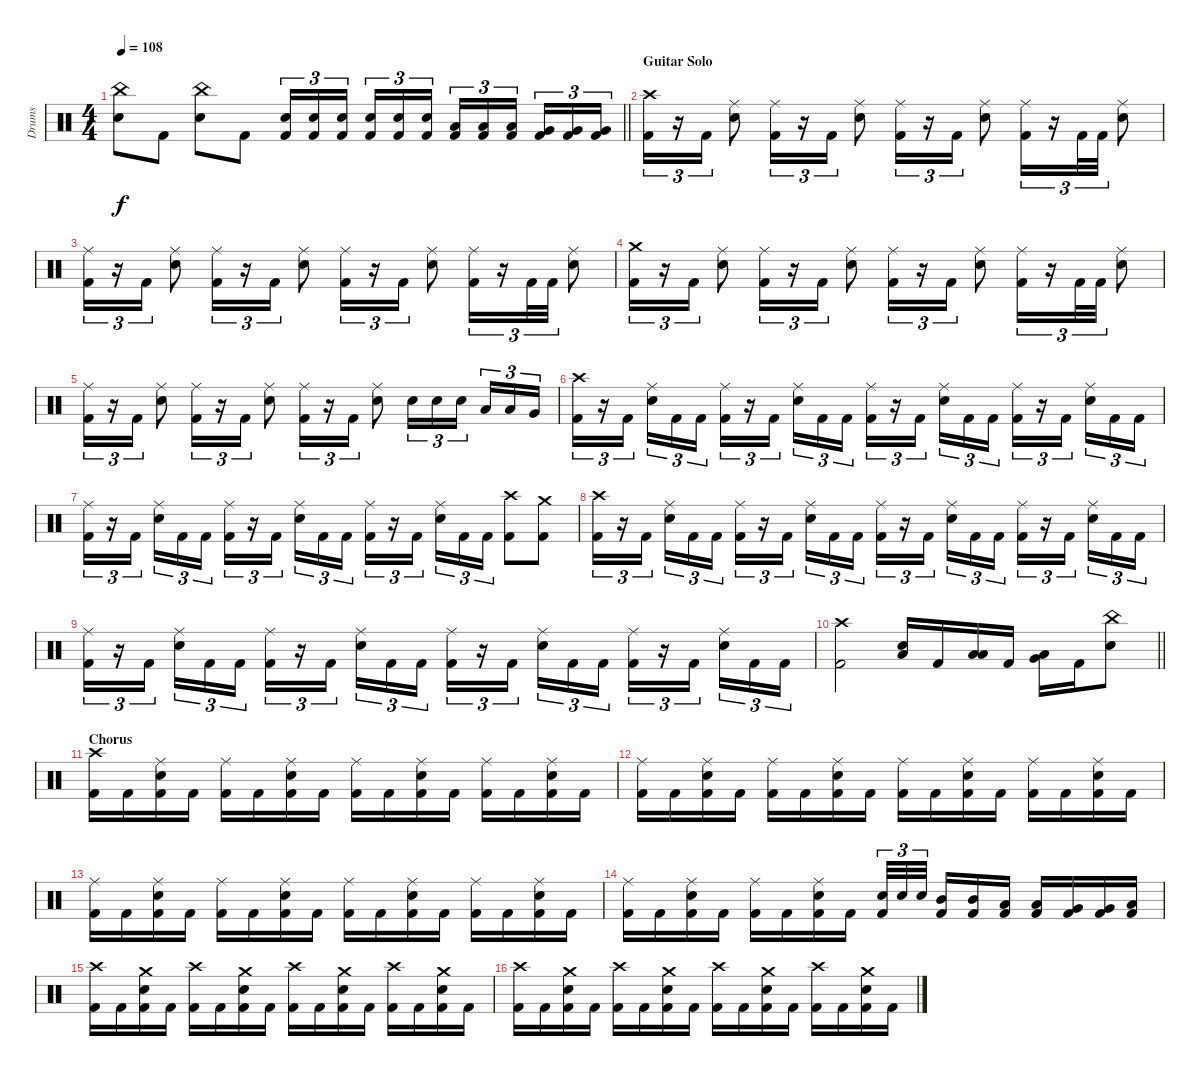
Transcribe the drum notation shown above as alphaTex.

\track ("Drums" "Drums") {instrument percussion}
\staff {score}
\articulation defaults
\ts (4 4)
\tempo 108
\clef neutral
\barLineRight lightlight
\ks c
("China (hit)" "Electric Snare (hit)").8{dy f} "Kick (hit) 2".8 ("China (hit)" "Electric Snare (hit)").8 "Kick (hit) 2".8 ("Electric Snare (hit)" "Kick (hit) 2").16{tu (3 2)} ("Electric Snare (hit)" "Kick (hit) 2").16{tu (3 2)} ("Electric Snare (hit)" "Kick (hit) 2").16{tu (3 2) beam splitsecondary} ("Electric Snare (hit)" "Kick (hit) 2").16{tu (3 2)} ("Electric Snare (hit)" "Kick (hit) 2").16{tu (3 2)} ("Electric Snare (hit)" "Kick (hit) 2").16{tu (3 2)} ("Low Tom (hit)" "Kick (hit) 2").16{tu (3 2)} ("Low Tom (hit)" "Kick (hit) 2").16{tu (3 2)} ("Low Tom (hit)" "Kick (hit) 2").16{tu (3 2) beam splitsecondary} ("Very Low Tom (hit)" "Kick (hit) 2").16{tu (3 2)} ("Very Low Tom (hit)" "Kick (hit) 2").16{tu (3 2)} ("Very Low Tom (hit)" "Kick (hit) 2").16{tu (3 2)} |
\section ("" "Guitar Solo")
("Crash high (hit)" "Kick (hit) 2").16{tu (3 2)} r.16{tu (3 2)} "Kick (hit) 2".16{tu (3 2)} ("Ride (middle)" "Electric Snare (hit)").8 ("Ride (middle)" "Kick (hit) 2").16{tu (3 2)} r.16{tu (3 2)} "Kick (hit) 2".16{tu (3 2)} ("Ride (middle)" "Electric Snare (hit)").8 ("Ride (middle)" "Kick (hit) 2").16{tu (3 2)} r.16{tu (3 2)} "Kick (hit) 2".16{tu (3 2)} ("Ride (middle)" "Electric Snare (hit)").8 ("Ride (middle)" "Kick (hit) 2").16{tu (3 2)} r.16{tu (3 2)} "Kick (hit) 2".32{tu (3 2)} "Kick (hit) 2".32{tu (3 2)} ("Ride (middle)" "Electric Snare (hit)").8 |
("Ride (middle)" "Kick (hit) 2").16{tu (3 2)} r.16{tu (3 2)} "Kick (hit) 2".16{tu (3 2)} ("Ride (middle)" "Electric Snare (hit)").8 ("Ride (middle)" "Kick (hit) 2").16{tu (3 2)} r.16{tu (3 2)} "Kick (hit) 2".16{tu (3 2)} ("Ride (middle)" "Electric Snare (hit)").8 ("Ride (middle)" "Kick (hit) 2").16{tu (3 2)} r.16{tu (3 2)} "Kick (hit) 2".16{tu (3 2)} ("Ride (middle)" "Electric Snare (hit)").8 ("Ride (middle)" "Kick (hit) 2").16{tu (3 2)} r.16{tu (3 2)} "Kick (hit) 2".32{tu (3 2)} "Kick (hit) 2".32{tu (3 2)} ("Ride (middle)" "Electric Snare (hit)").8 |
("Crash medium (hit)" "Kick (hit) 2").16{tu (3 2)} r.16{tu (3 2)} "Kick (hit) 2".16{tu (3 2)} ("Ride (middle)" "Electric Snare (hit)").8 ("Ride (middle)" "Kick (hit) 2").16{tu (3 2)} r.16{tu (3 2)} "Kick (hit) 2".16{tu (3 2)} ("Ride (middle)" "Electric Snare (hit)").8 ("Ride (middle)" "Kick (hit) 2").16{tu (3 2)} r.16{tu (3 2)} "Kick (hit) 2".16{tu (3 2)} ("Ride (middle)" "Electric Snare (hit)").8 ("Ride (middle)" "Kick (hit) 2").16{tu (3 2)} r.16{tu (3 2)} "Kick (hit) 2".32{tu (3 2)} "Kick (hit) 2".32{tu (3 2)} ("Ride (middle)" "Electric Snare (hit)").8 |
("Ride (middle)" "Kick (hit) 2").16{tu (3 2)} r.16{tu (3 2)} "Kick (hit) 2".16{tu (3 2)} ("Ride (middle)" "Electric Snare (hit)").8 ("Ride (middle)" "Kick (hit) 2").16{tu (3 2)} r.16{tu (3 2)} "Kick (hit) 2".16{tu (3 2)} ("Ride (middle)" "Electric Snare (hit)").8 ("Ride (middle)" "Kick (hit) 2").16{tu (3 2)} r.16{tu (3 2)} "Kick (hit) 2".16{tu (3 2)} ("Ride (middle)" "Electric Snare (hit)").8 "Electric Snare (hit)".16{tu (3 2)} "Electric Snare (hit)".16{tu (3 2)} "Electric Snare (hit)".16{tu (3 2) beam splitsecondary} "Low Tom (hit)".16{tu (3 2)} "Low Tom (hit)".16{tu (3 2)} "Very Low Tom (hit)".16{tu (3 2)} |
("Crash high (hit)" "Kick (hit) 2").16{tu (3 2)} r.16{tu (3 2)} "Kick (hit) 2".16{tu (3 2) beam splitsecondary} ("Ride (middle)" "Electric Snare (hit)").16{tu (3 2)} "Kick (hit) 2".16{tu (3 2)} "Kick (hit) 2".16{tu (3 2)} ("Ride (middle)" "Kick (hit) 2").16{tu (3 2)} r.16{tu (3 2)} "Kick (hit) 2".16{tu (3 2) beam splitsecondary} ("Ride (middle)" "Electric Snare (hit)").16{tu (3 2)} "Kick (hit) 2".16{tu (3 2)} "Kick (hit) 2".16{tu (3 2)} ("Ride (middle)" "Kick (hit) 2").16{tu (3 2)} r.16{tu (3 2)} "Kick (hit) 2".16{tu (3 2) beam splitsecondary} ("Ride (middle)" "Electric Snare (hit)").16{tu (3 2)} "Kick (hit) 2".16{tu (3 2)} "Kick (hit) 2".16{tu (3 2)} ("Ride (middle)" "Kick (hit) 2").16{tu (3 2)} r.16{tu (3 2)} "Kick (hit) 2".16{tu (3 2) beam splitsecondary} ("Ride (middle)" "Electric Snare (hit)").16{tu (3 2)} "Kick (hit) 2".16{tu (3 2)} "Kick (hit) 2".16{tu (3 2)} |
("Ride (middle)" "Kick (hit) 2").16{tu (3 2)} r.16{tu (3 2)} "Kick (hit) 2".16{tu (3 2) beam splitsecondary} ("Ride (middle)" "Electric Snare (hit)").16{tu (3 2)} "Kick (hit) 2".16{tu (3 2)} "Kick (hit) 2".16{tu (3 2)} ("Ride (middle)" "Kick (hit) 2").16{tu (3 2)} r.16{tu (3 2)} "Kick (hit) 2".16{tu (3 2) beam splitsecondary} ("Ride (middle)" "Electric Snare (hit)").16{tu (3 2)} "Kick (hit) 2".16{tu (3 2)} "Kick (hit) 2".16{tu (3 2)} ("Ride (middle)" "Kick (hit) 2").16{tu (3 2)} r.16{tu (3 2)} "Kick (hit) 2".16{tu (3 2) beam splitsecondary} ("Ride (middle)" "Electric Snare (hit)").16{tu (3 2)} "Kick (hit) 2".16{tu (3 2)} "Kick (hit) 2".16{tu (3 2)} ("Crash high (hit)" "Kick (hit) 2").8 ("Crash medium (hit)" "Kick (hit) 2").8 |
("Crash high (hit)" "Kick (hit) 2").16{tu (3 2)} r.16{tu (3 2)} "Kick (hit) 2".16{tu (3 2) beam splitsecondary} ("Ride (middle)" "Electric Snare (hit)").16{tu (3 2)} "Kick (hit) 2".16{tu (3 2)} "Kick (hit) 2".16{tu (3 2)} ("Ride (middle)" "Kick (hit) 2").16{tu (3 2)} r.16{tu (3 2)} "Kick (hit) 2".16{tu (3 2) beam splitsecondary} ("Ride (middle)" "Electric Snare (hit)").16{tu (3 2)} "Kick (hit) 2".16{tu (3 2)} "Kick (hit) 2".16{tu (3 2)} ("Ride (middle)" "Kick (hit) 2").16{tu (3 2)} r.16{tu (3 2)} "Kick (hit) 2".16{tu (3 2) beam splitsecondary} ("Ride (middle)" "Electric Snare (hit)").16{tu (3 2)} "Kick (hit) 2".16{tu (3 2)} "Kick (hit) 2".16{tu (3 2)} ("Ride (middle)" "Kick (hit) 2").16{tu (3 2)} r.16{tu (3 2)} "Kick (hit) 2".16{tu (3 2) beam splitsecondary} ("Ride (middle)" "Electric Snare (hit)").16{tu (3 2)} "Kick (hit) 2".16{tu (3 2)} "Kick (hit) 2".16{tu (3 2)} |
("Ride (middle)" "Kick (hit) 2").16{tu (3 2)} r.16{tu (3 2)} "Kick (hit) 2".16{tu (3 2) beam splitsecondary} ("Ride (middle)" "Electric Snare (hit)").16{tu (3 2)} "Kick (hit) 2".16{tu (3 2)} "Kick (hit) 2".16{tu (3 2)} ("Ride (middle)" "Kick (hit) 2").16{tu (3 2)} r.16{tu (3 2)} "Kick (hit) 2".16{tu (3 2) beam splitsecondary} ("Ride (middle)" "Electric Snare (hit)").16{tu (3 2)} "Kick (hit) 2".16{tu (3 2)} "Kick (hit) 2".16{tu (3 2)} ("Ride (middle)" "Kick (hit) 2").16{tu (3 2)} r.16{tu (3 2)} "Kick (hit) 2".16{tu (3 2) beam splitsecondary} ("Ride (middle)" "Electric Snare (hit)").16{tu (3 2)} "Kick (hit) 2".16{tu (3 2)} "Kick (hit) 2".16{tu (3 2)} ("Ride (middle)" "Kick (hit) 2").16{tu (3 2)} r.16{tu (3 2)} "Kick (hit) 2".16{tu (3 2) beam splitsecondary} ("Ride (middle)" "Electric Snare (hit)").16{tu (3 2)} "Kick (hit) 2".16{tu (3 2)} "Kick (hit) 2".16{tu (3 2)} |
\barLineRight lightlight
("Crash high (hit)" "Kick (hit) 2").2 ("Low Floor Tom (hit)" "Electric Snare (hit)").16 "Kick (hit) 2".16 ("Low Tom (hit)" "Low Floor Tom (hit)").16 "Kick (hit) 2".16 ("Very Low Tom (hit)" "Low Floor Tom (hit)").16 "Kick (hit) 2".16 ("China (hit)" "Electric Snare (hit)").8 |
\section ("" "Chorus")
("Crash high (hit)" "Kick (hit) 2").16 "Kick (hit) 2".16 ("Ride (middle)" "Electric Snare (hit)" "Kick (hit) 2").16 "Kick (hit) 2".16 ("Ride (middle)" "Kick (hit) 2").16 "Kick (hit) 2".16 ("Ride (middle)" "Electric Snare (hit)" "Kick (hit) 2").16 "Kick (hit) 2".16 ("Ride (middle)" "Kick (hit) 2").16 "Kick (hit) 2".16 ("Ride (middle)" "Electric Snare (hit)" "Kick (hit) 2").16 "Kick (hit) 2".16 ("Ride (middle)" "Kick (hit) 2").16 "Kick (hit) 2".16 ("Ride (middle)" "Electric Snare (hit)" "Kick (hit) 2").16 "Kick (hit) 2".16 |
("Ride (middle)" "Kick (hit) 2").16 "Kick (hit) 2".16 ("Ride (middle)" "Electric Snare (hit)" "Kick (hit) 2").16 "Kick (hit) 2".16 ("Ride (middle)" "Kick (hit) 2").16 "Kick (hit) 2".16 ("Ride (middle)" "Electric Snare (hit)" "Kick (hit) 2").16 "Kick (hit) 2".16 ("Ride (middle)" "Kick (hit) 2").16 "Kick (hit) 2".16 ("Ride (middle)" "Electric Snare (hit)" "Kick (hit) 2").16 "Kick (hit) 2".16 ("Ride (middle)" "Kick (hit) 2").16 "Kick (hit) 2".16 ("Ride (middle)" "Electric Snare (hit)" "Kick (hit) 2").16 "Kick (hit) 2".16 |
("Ride (middle)" "Kick (hit) 2").16 "Kick (hit) 2".16 ("Ride (middle)" "Electric Snare (hit)" "Kick (hit) 2").16 "Kick (hit) 2".16 ("Ride (middle)" "Kick (hit) 2").16 "Kick (hit) 2".16 ("Ride (middle)" "Electric Snare (hit)" "Kick (hit) 2").16 "Kick (hit) 2".16 ("Ride (middle)" "Kick (hit) 2").16 "Kick (hit) 2".16 ("Ride (middle)" "Electric Snare (hit)" "Kick (hit) 2").16 "Kick (hit) 2".16 ("Ride (middle)" "Kick (hit) 2").16 "Kick (hit) 2".16 ("Ride (middle)" "Electric Snare (hit)" "Kick (hit) 2").16 "Kick (hit) 2".16 |
("Ride (middle)" "Kick (hit) 2").16 "Kick (hit) 2".16 ("Ride (middle)" "Electric Snare (hit)" "Kick (hit) 2").16 "Kick (hit) 2".16 ("Ride (middle)" "Kick (hit) 2").16 "Kick (hit) 2".16 ("Ride (middle)" "Electric Snare (hit)" "Kick (hit) 2").16 "Kick (hit) 2".16 ("Electric Snare (hit)" "Kick (hit) 2").32{tu (3 2)} "Electric Snare (hit)".32{tu (3 2)} "Electric Snare (hit)".32{tu (3 2) beam splitsecondary} ("Mid Tom (hit)" "Kick (hit) 2").16 ("Mid Tom (hit)" "Kick (hit) 2").16 ("Low Tom (hit)" "Kick (hit) 2").16 ("Low Tom (hit)" "Kick (hit) 2").16 ("Very Low Tom (hit)" "Kick (hit) 2").16 ("Very Low Tom (hit)" "Kick (hit) 2").16 ("Low Floor Tom (hit)" "Kick (hit) 2").16 |
("Crash high (hit)" "Kick (hit) 2").16 "Kick (hit) 2".16 ("Crash medium (hit)" "Electric Snare (hit)" "Kick (hit) 2").16 "Kick (hit) 2".16 ("Crash high (hit)" "Kick (hit) 2").16 "Kick (hit) 2".16 ("Crash medium (hit)" "Electric Snare (hit)" "Kick (hit) 2").16 "Kick (hit) 2".16 ("Crash high (hit)" "Kick (hit) 2").16 "Kick (hit) 2".16 ("Crash medium (hit)" "Electric Snare (hit)" "Kick (hit) 2").16 "Kick (hit) 2".16 ("Crash high (hit)" "Kick (hit) 2").16 "Kick (hit) 2".16 ("Crash medium (hit)" "Electric Snare (hit)" "Kick (hit) 2").16 "Kick (hit) 2".16 |
("Crash high (hit)" "Kick (hit) 2").16 "Kick (hit) 2".16 ("Crash medium (hit)" "Electric Snare (hit)" "Kick (hit) 2").16 "Kick (hit) 2".16 ("Crash high (hit)" "Kick (hit) 2").16 "Kick (hit) 2".16 ("Crash medium (hit)" "Electric Snare (hit)" "Kick (hit) 2").16 "Kick (hit) 2".16 ("Crash high (hit)" "Kick (hit) 2").16 "Kick (hit) 2".16 ("Crash medium (hit)" "Electric Snare (hit)" "Kick (hit) 2").16 "Kick (hit) 2".16 ("Crash high (hit)" "Kick (hit) 2").16 "Kick (hit) 2".16 ("Crash medium (hit)" "Electric Snare (hit)" "Kick (hit) 2").16 "Kick (hit) 2".16
